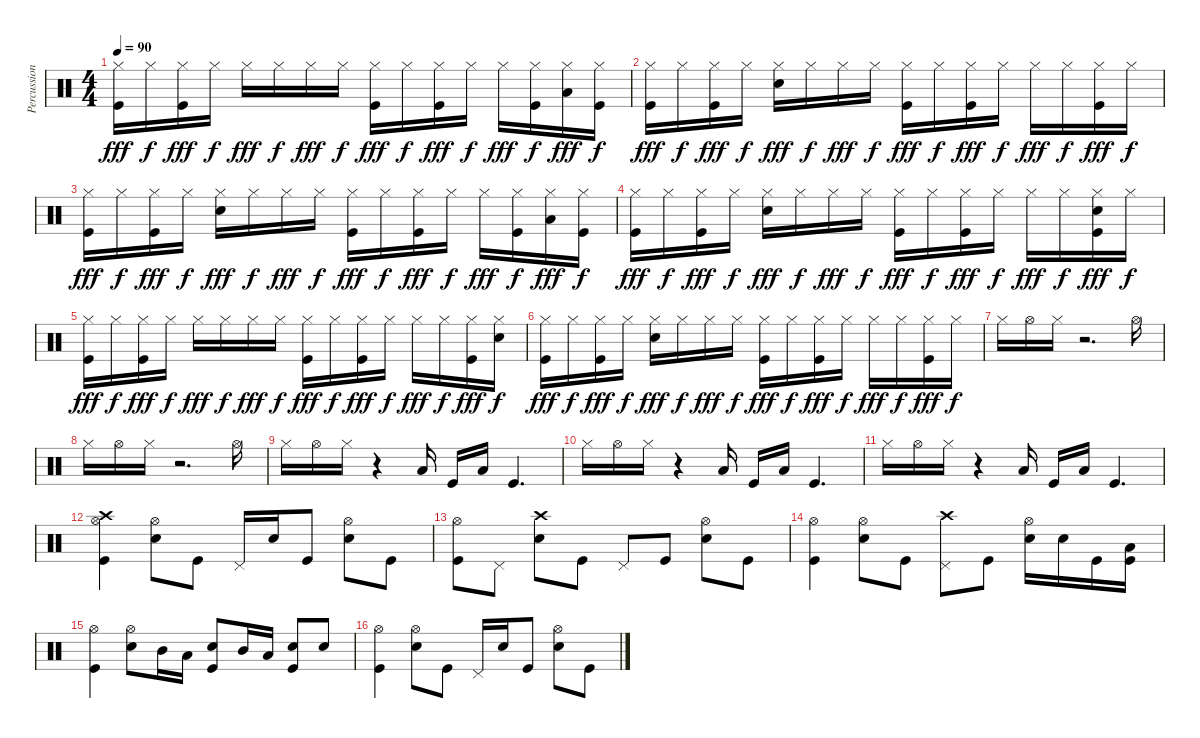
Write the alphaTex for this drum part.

\track ("Percussion" "Percussion") {instrument percussion}
\staff {score}
\articulation defaults
\ts (4 4)
\tempo 90
\clef neutral
\ks c
("Hi-Hat (closed)" "Kick (hit)").16{dy fff} "Hi-Hat (closed)".16{dy f} ("Hi-Hat (closed)" "Kick (hit)").16{dy fff} "Hi-Hat (closed)".16{dy f} "Hi-Hat (closed)".16{dy fff} "Hi-Hat (closed)".16{dy f} "Hi-Hat (closed)".16{dy fff} "Hi-Hat (closed)".16{dy f} ("Hi-Hat (closed)" "Kick (hit)").16{dy fff} "Hi-Hat (closed)".16{dy f} ("Hi-Hat (closed)" "Kick (hit)").16{dy fff} "Hi-Hat (closed)".16{dy f} "Hi-Hat (closed)".16{dy fff} ("Hi-Hat (closed)" "Kick (hit)").16{dy f} ("Hi-Hat (closed)" "Low Tom (hit)").16{dy fff} ("Hi-Hat (closed)" "Kick (hit)").16{dy f} |
("Hi-Hat (closed)" "Kick (hit)").16{dy fff} "Hi-Hat (closed)".16{dy f} ("Hi-Hat (closed)" "Kick (hit)").16{dy fff} "Hi-Hat (closed)".16{dy f} ("Hi-Hat (closed)" "Snare (hit) 2").16{dy fff} "Hi-Hat (closed)".16{dy f} "Hi-Hat (closed)".16{dy fff} "Hi-Hat (closed)".16{dy f} ("Hi-Hat (closed)" "Kick (hit)").16{dy fff} "Hi-Hat (closed)".16{dy f} ("Hi-Hat (closed)" "Kick (hit)").16{dy fff} "Hi-Hat (closed)".16{dy f} "Hi-Hat (closed)".16{dy fff} "Hi-Hat (closed)".16{dy f} ("Hi-Hat (closed)" "Kick (hit)").16{dy fff} "Hi-Hat (closed)".16{dy f} |
("Hi-Hat (closed)" "Kick (hit)").16{dy fff} "Hi-Hat (closed)".16{dy f} ("Hi-Hat (closed)" "Kick (hit)").16{dy fff} "Hi-Hat (closed)".16{dy f} ("Hi-Hat (closed)" "Snare (hit) 2").16{dy fff} "Hi-Hat (closed)".16{dy f} "Hi-Hat (closed)".16{dy fff} "Hi-Hat (closed)".16{dy f} ("Hi-Hat (closed)" "Kick (hit)").16{dy fff} "Hi-Hat (closed)".16{dy f} ("Hi-Hat (closed)" "Kick (hit)").16{dy fff} "Hi-Hat (closed)".16{dy f} "Hi-Hat (closed)".16{dy fff} ("Hi-Hat (closed)" "Kick (hit)").16{dy f} ("Hi-Hat (closed)" "Low Tom (hit)").16{dy fff} ("Hi-Hat (closed)" "Kick (hit)").16{dy f} |
("Hi-Hat (closed)" "Kick (hit)").16{dy fff} "Hi-Hat (closed)".16{dy f} ("Hi-Hat (closed)" "Kick (hit)").16{dy fff} "Hi-Hat (closed)".16{dy f} ("Hi-Hat (closed)" "Snare (hit) 2").16{dy fff} "Hi-Hat (closed)".16{dy f} "Hi-Hat (closed)".16{dy fff} "Hi-Hat (closed)".16{dy f} ("Hi-Hat (closed)" "Kick (hit)").16{dy fff} "Hi-Hat (closed)".16{dy f} ("Hi-Hat (closed)" "Kick (hit)").16{dy fff} "Hi-Hat (closed)".16{dy f} "Hi-Hat (closed)".16{dy fff} "Hi-Hat (closed)".16{dy f} ("Hi-Hat (closed)" "Kick (hit)" "Snare (hit) 2").16{dy fff} "Hi-Hat (closed)".16{dy f} |
("Hi-Hat (closed)" "Kick (hit)").16{dy fff} "Hi-Hat (closed)".16{dy f} ("Hi-Hat (closed)" "Kick (hit)").16{dy fff} "Hi-Hat (closed)".16{dy f} "Hi-Hat (closed)".16{dy fff} "Hi-Hat (closed)".16{dy f} "Hi-Hat (closed)".16{dy fff} "Hi-Hat (closed)".16{dy f} ("Hi-Hat (closed)" "Kick (hit)").16{dy fff} "Hi-Hat (closed)".16{dy f} ("Hi-Hat (closed)" "Kick (hit)").16{dy fff} "Hi-Hat (closed)".16{dy f} "Hi-Hat (closed)".16{dy fff} "Hi-Hat (closed)".16{dy f} ("Hi-Hat (closed)" "Kick (hit)").16{dy fff} ("Hi-Hat (closed)" "Snare (hit) 2").16{dy f} |
("Hi-Hat (closed)" "Kick (hit)").16{dy fff} "Hi-Hat (closed)".16{dy f} ("Hi-Hat (closed)" "Kick (hit)").16{dy fff} "Hi-Hat (closed)".16{dy f} ("Hi-Hat (closed)" "Snare (hit) 2").16{dy fff} "Hi-Hat (closed)".16{dy f} "Hi-Hat (closed)".16{dy fff} "Hi-Hat (closed)".16{dy f} ("Hi-Hat (closed)" "Kick (hit)").16{dy fff} "Hi-Hat (closed)".16{dy f} ("Hi-Hat (closed)" "Kick (hit)").16{dy fff} "Hi-Hat (closed)".16{dy f} "Hi-Hat (closed)".16{dy fff} "Hi-Hat (closed)".16{dy f} ("Hi-Hat (closed)" "Kick (hit)").16{dy fff} "Hi-Hat (closed)".16{dy f} |
"Hi-Hat (closed)".16 "Hi-Hat (open)".16 "Hi-Hat (closed)".16 r.2{d} "Hi-Hat (open)".16 |
"Hi-Hat (closed)".16 "Hi-Hat (open)".16 "Hi-Hat (closed)".16 r.2{d} "Hi-Hat (open)".16 |
"Hi-Hat (closed)".16 "Hi-Hat (open)".16 "Hi-Hat (closed)".16 r.4 "Low Tom (hit)".16 "Kick (hit)".16 "Low Tom (hit)".16 "Kick (hit)".4{d} |
"Hi-Hat (closed)".16 "Hi-Hat (open)".16 "Hi-Hat (closed)".16 r.4 "Low Tom (hit)".16 "Kick (hit)".16 "Low Tom (hit)".16 "Kick (hit)".4{d} |
"Hi-Hat (closed)".16 "Hi-Hat (open)".16 "Hi-Hat (closed)".16 r.4 "Low Tom (hit)".16 "Kick (hit)".16 "Low Tom (hit)".16 "Kick (hit)".4{d} |
("Kick (hit)" "Hi-Hat (open)" "Crash high (hit)").4 ("Snare (hit) 2" "Hi-Hat (open)").8 "Kick (hit)".8 "Pedal Hi-Hat (hit)".16 "Snare (hit) 2".16 "Kick (hit)".8 ("Snare (hit) 2" "Hi-Hat (open)").8 "Kick (hit)".8 |
("Kick (hit)" "Hi-Hat (open)").8 "Pedal Hi-Hat (hit)".8 ("Snare (hit) 2" "Crash high (hit)").8 "Kick (hit)".8 "Pedal Hi-Hat (hit)".8 "Kick (hit)".8 ("Snare (hit) 2" "Hi-Hat (open)").8 "Kick (hit)".8 |
("Kick (hit)" "Hi-Hat (open)").4 ("Snare (hit) 2" "Hi-Hat (open)").8 "Kick (hit)".8 ("Crash high (hit)" "Pedal Hi-Hat (hit)").8 "Kick (hit)".8 ("Snare (hit) 2" "Hi-Hat (open)").16 "Snare (hit) 2".16 "Kick (hit)".16 ("Kick (hit)" "Low Tom (hit)").16 |
("Kick (hit)" "Hi-Hat (open)").4 ("Snare (hit) 2" "Hi-Hat (open)").8 "Mid Tom (hit)".16 "Low Tom (hit)".16 ("Kick (hit)" "Snare (hit) 2").8 "Mid Tom (hit)".16 "Low Tom (hit)".16 ("Kick (hit)" "Snare (hit) 2").8 "Snare (hit) 2".8 |
("Kick (hit)" "Hi-Hat (open)").4 ("Snare (hit) 2" "Hi-Hat (open)").8 "Kick (hit)".8 "Pedal Hi-Hat (hit)".16 "Snare (hit) 2".16 "Kick (hit)".8 ("Snare (hit) 2" "Hi-Hat (open)").8 "Kick (hit)".8
